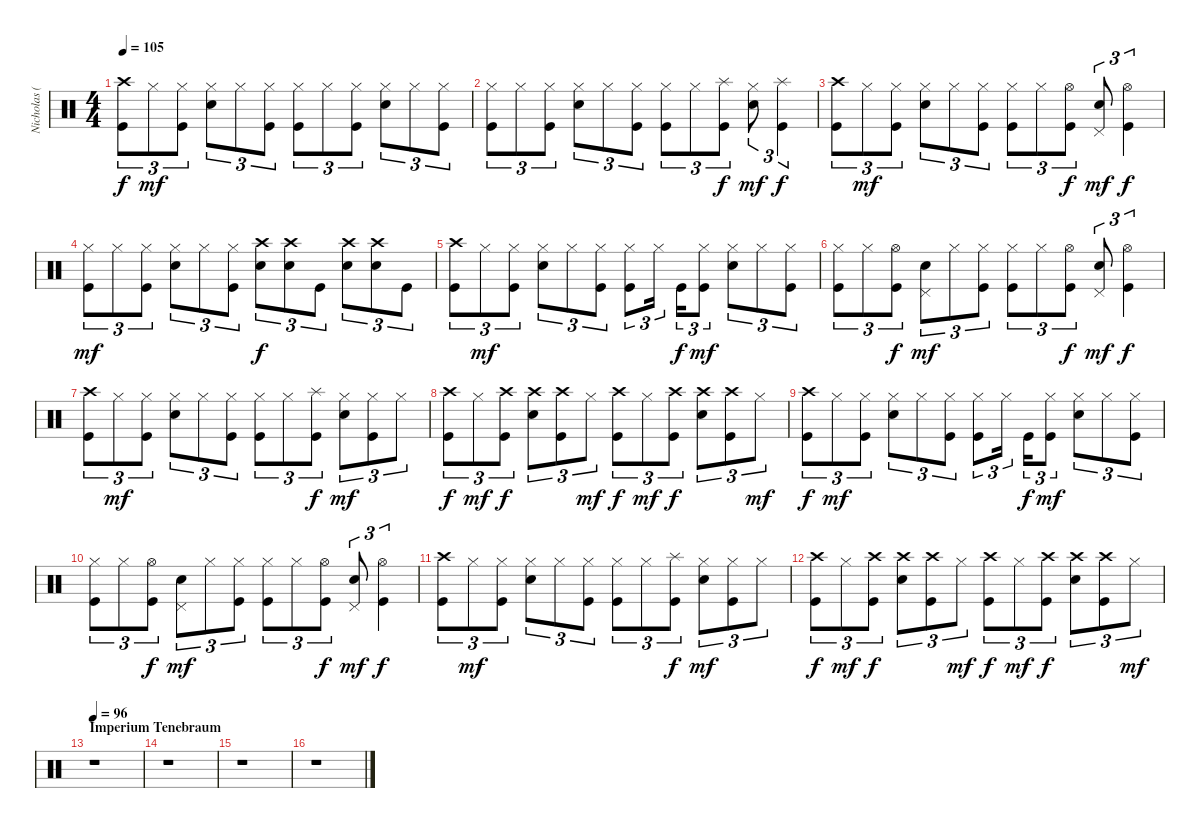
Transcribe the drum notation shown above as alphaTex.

\track ("Nicholas (Drums)" "Nicholas (") {instrument percussion}
\staff {score}
\articulation defaults
\ts (4 4)
\tempo 105
\clef neutral
\ks c
("Crash high (hit)" "Kick (hit)").8{tu (3 2) dy f volume 13} "Hi-Hat (closed)".8{tu (3 2) dy mf} ("Hi-Hat (closed)" "Kick (hit)").8{tu (3 2)} ("Hi-Hat (closed)" "Electric Snare (hit)").8{tu (3 2)} "Hi-Hat (closed)".8{tu (3 2)} ("Hi-Hat (closed)" "Kick (hit)").8{tu (3 2)} ("Hi-Hat (closed)" "Kick (hit)").8{tu (3 2)} "Hi-Hat (closed)".8{tu (3 2)} ("Hi-Hat (closed)" "Kick (hit)").8{tu (3 2)} ("Hi-Hat (closed)" "Electric Snare (hit)").8{tu (3 2)} "Hi-Hat (closed)".8{tu (3 2)} ("Hi-Hat (closed)" "Kick (hit)").8{tu (3 2)} |
("Hi-Hat (closed)" "Kick (hit)").8{tu (3 2)} "Hi-Hat (closed)".8{tu (3 2)} ("Hi-Hat (closed)" "Kick (hit)").8{tu (3 2)} ("Hi-Hat (closed)" "Electric Snare (hit)").8{tu (3 2)} "Hi-Hat (closed)".8{tu (3 2)} ("Hi-Hat (closed)" "Kick (hit)").8{tu (3 2)} ("Hi-Hat (closed)" "Kick (hit)").8{tu (3 2)} "Hi-Hat (closed)".8{tu (3 2)} ("Splash (hit)" "Kick (hit)").8{tu (3 2) dy f} ("Hi-Hat (closed)" "Electric Snare (hit)").8{tu (3 2) dy mf} ("Splash (hit)" "Kick (hit)").4{tu (3 2) dy f} |
("Crash high (hit)" "Kick (hit)").8{tu (3 2) volume 10} "Hi-Hat (closed)".8{tu (3 2) dy mf} ("Hi-Hat (closed)" "Kick (hit)").8{tu (3 2)} ("Hi-Hat (closed)" "Electric Snare (hit)").8{tu (3 2)} "Hi-Hat (closed)".8{tu (3 2)} ("Hi-Hat (closed)" "Kick (hit)").8{tu (3 2)} ("Hi-Hat (closed)" "Kick (hit)").8{tu (3 2)} "Hi-Hat (closed)".8{tu (3 2)} ("Hi-Hat (open)" "Kick (hit)").8{tu (3 2) dy f} ("Pedal Hi-Hat (hit)" "Electric Snare (hit)").8{tu (3 2) dy mf} ("Hi-Hat (open)" "Kick (hit)").4{tu (3 2) dy f} |
("Hi-Hat (closed)" "Kick (hit)").8{tu (3 2) dy mf} "Hi-Hat (closed)".8{tu (3 2)} ("Hi-Hat (closed)" "Kick (hit)").8{tu (3 2)} ("Hi-Hat (closed)" "Electric Snare (hit)").8{tu (3 2)} "Hi-Hat (closed)".8{tu (3 2)} ("Hi-Hat (closed)" "Kick (hit)").8{tu (3 2)} ("Crash high (hit)" "Electric Snare (hit)").8{tu (3 2) dy f} ("Crash high (hit)" "Electric Snare (hit)").8{tu (3 2)} "Kick (hit)".8{tu (3 2)} ("Crash high (hit)" "Electric Snare (hit)").8{tu (3 2)} ("Crash high (hit)" "Electric Snare (hit)").8{tu (3 2)} "Kick (hit)".8{tu (3 2)} |
("Crash high (hit)" "Kick (hit)").8{tu (3 2) volume 8} "Hi-Hat (closed)".8{tu (3 2) dy mf} ("Hi-Hat (closed)" "Kick (hit)").8{tu (3 2)} ("Hi-Hat (closed)" "Electric Snare (hit)").8{tu (3 2)} "Hi-Hat (closed)".8{tu (3 2)} ("Hi-Hat (closed)" "Kick (hit)").8{tu (3 2)} ("Hi-Hat (closed)" "Kick (hit)").8{tu (3 2)} "Hi-Hat (closed)".16{tu (3 2)} "Kick (hit)".16{tu (3 2) dy f} ("Hi-Hat (closed)" "Kick (hit)").8{tu (3 2) dy mf} ("Hi-Hat (closed)" "Electric Snare (hit)").8{tu (3 2)} "Hi-Hat (closed)".8{tu (3 2)} ("Hi-Hat (closed)" "Kick (hit)").8{tu (3 2)} |
("Hi-Hat (closed)" "Kick (hit)").8{tu (3 2)} "Hi-Hat (closed)".8{tu (3 2)} ("Hi-Hat (open)" "Kick (hit)").8{tu (3 2) dy f} ("Pedal Hi-Hat (hit)" "Electric Snare (hit)").8{tu (3 2) dy mf} "Hi-Hat (closed)".8{tu (3 2)} ("Hi-Hat (closed)" "Kick (hit)").8{tu (3 2)} ("Hi-Hat (closed)" "Kick (hit)").8{tu (3 2)} "Hi-Hat (closed)".8{tu (3 2)} ("Hi-Hat (open)" "Kick (hit)").8{tu (3 2) dy f} ("Pedal Hi-Hat (hit)" "Electric Snare (hit)").8{tu (3 2) dy mf} ("Hi-Hat (open)" "Kick (hit)").4{tu (3 2) dy f} |
("Crash high (hit)" "Kick (hit)").8{tu (3 2) volume 6} "Hi-Hat (closed)".8{tu (3 2) dy mf} ("Hi-Hat (closed)" "Kick (hit)").8{tu (3 2)} ("Hi-Hat (closed)" "Electric Snare (hit)").8{tu (3 2)} "Hi-Hat (closed)".8{tu (3 2)} ("Hi-Hat (closed)" "Kick (hit)").8{tu (3 2)} ("Hi-Hat (closed)" "Kick (hit)").8{tu (3 2)} "Hi-Hat (closed)".8{tu (3 2)} ("Splash (hit)" "Kick (hit)").8{tu (3 2) dy f} ("Hi-Hat (closed)" "Electric Snare (hit)").8{tu (3 2) dy mf} ("Hi-Hat (closed)" "Kick (hit)").8{tu (3 2)} "Hi-Hat (closed)".8{tu (3 2)} |
("Crash high (hit)" "Kick (hit)").8{tu (3 2) dy f} "Hi-Hat (closed)".8{tu (3 2) dy mf} ("Crash high (hit)" "Kick (hit)").8{tu (3 2) dy f} ("Crash high (hit)" "Electric Snare (hit)").8{tu (3 2)} ("Crash high (hit)" "Kick (hit)").8{tu (3 2)} "Hi-Hat (closed)".8{tu (3 2) dy mf} ("Crash high (hit)" "Kick (hit)").8{tu (3 2) dy f} "Hi-Hat (closed)".8{tu (3 2) dy mf} ("Crash high (hit)" "Kick (hit)").8{tu (3 2) dy f} ("Crash high (hit)" "Electric Snare (hit)").8{tu (3 2)} ("Crash high (hit)" "Kick (hit)").8{tu (3 2)} "Hi-Hat (closed)".8{tu (3 2) dy mf} |
("Crash high (hit)" "Kick (hit)").8{tu (3 2) dy f volume 4} "Hi-Hat (closed)".8{tu (3 2) dy mf} ("Hi-Hat (closed)" "Kick (hit)").8{tu (3 2)} ("Hi-Hat (closed)" "Electric Snare (hit)").8{tu (3 2)} "Hi-Hat (closed)".8{tu (3 2)} ("Hi-Hat (closed)" "Kick (hit)").8{tu (3 2)} ("Hi-Hat (closed)" "Kick (hit)").8{tu (3 2)} "Hi-Hat (closed)".16{tu (3 2)} "Kick (hit)".16{tu (3 2) dy f} ("Hi-Hat (closed)" "Kick (hit)").8{tu (3 2) dy mf} ("Hi-Hat (closed)" "Electric Snare (hit)").8{tu (3 2)} "Hi-Hat (closed)".8{tu (3 2)} ("Hi-Hat (closed)" "Kick (hit)").8{tu (3 2)} |
("Hi-Hat (closed)" "Kick (hit)").8{tu (3 2)} "Hi-Hat (closed)".8{tu (3 2)} ("Hi-Hat (open)" "Kick (hit)").8{tu (3 2) dy f} ("Pedal Hi-Hat (hit)" "Electric Snare (hit)").8{tu (3 2) dy mf} "Hi-Hat (closed)".8{tu (3 2)} ("Hi-Hat (closed)" "Kick (hit)").8{tu (3 2)} ("Hi-Hat (closed)" "Kick (hit)").8{tu (3 2)} "Hi-Hat (closed)".8{tu (3 2)} ("Hi-Hat (open)" "Kick (hit)").8{tu (3 2) dy f} ("Pedal Hi-Hat (hit)" "Electric Snare (hit)").8{tu (3 2) dy mf} ("Hi-Hat (open)" "Kick (hit)").4{tu (3 2) dy f} |
("Crash high (hit)" "Kick (hit)").8{tu (3 2) volume 0} "Hi-Hat (closed)".8{tu (3 2) dy mf} ("Hi-Hat (closed)" "Kick (hit)").8{tu (3 2)} ("Hi-Hat (closed)" "Electric Snare (hit)").8{tu (3 2)} "Hi-Hat (closed)".8{tu (3 2)} ("Hi-Hat (closed)" "Kick (hit)").8{tu (3 2)} ("Hi-Hat (closed)" "Kick (hit)").8{tu (3 2)} "Hi-Hat (closed)".8{tu (3 2)} ("Splash (hit)" "Kick (hit)").8{tu (3 2) dy f} ("Hi-Hat (closed)" "Electric Snare (hit)").8{tu (3 2) dy mf} ("Hi-Hat (closed)" "Kick (hit)").8{tu (3 2)} "Hi-Hat (closed)".8{tu (3 2)} |
("Crash high (hit)" "Kick (hit)").8{tu (3 2) dy f} "Hi-Hat (closed)".8{tu (3 2) dy mf} ("Crash high (hit)" "Kick (hit)").8{tu (3 2) dy f} ("Crash high (hit)" "Electric Snare (hit)").8{tu (3 2)} ("Crash high (hit)" "Kick (hit)").8{tu (3 2)} "Hi-Hat (closed)".8{tu (3 2) dy mf} ("Crash high (hit)" "Kick (hit)").8{tu (3 2) dy f} "Hi-Hat (closed)".8{tu (3 2) dy mf} ("Crash high (hit)" "Kick (hit)").8{tu (3 2) dy f} ("Crash high (hit)" "Electric Snare (hit)").8{tu (3 2)} ("Crash high (hit)" "Kick (hit)").8{tu (3 2)} "Hi-Hat (closed)".8{tu (3 2) dy mf} |
\section ("" "Imperium Tenebraum")
\tempo 96
r.1{volume 15} |
r.1 |
r.1 |
r.1
